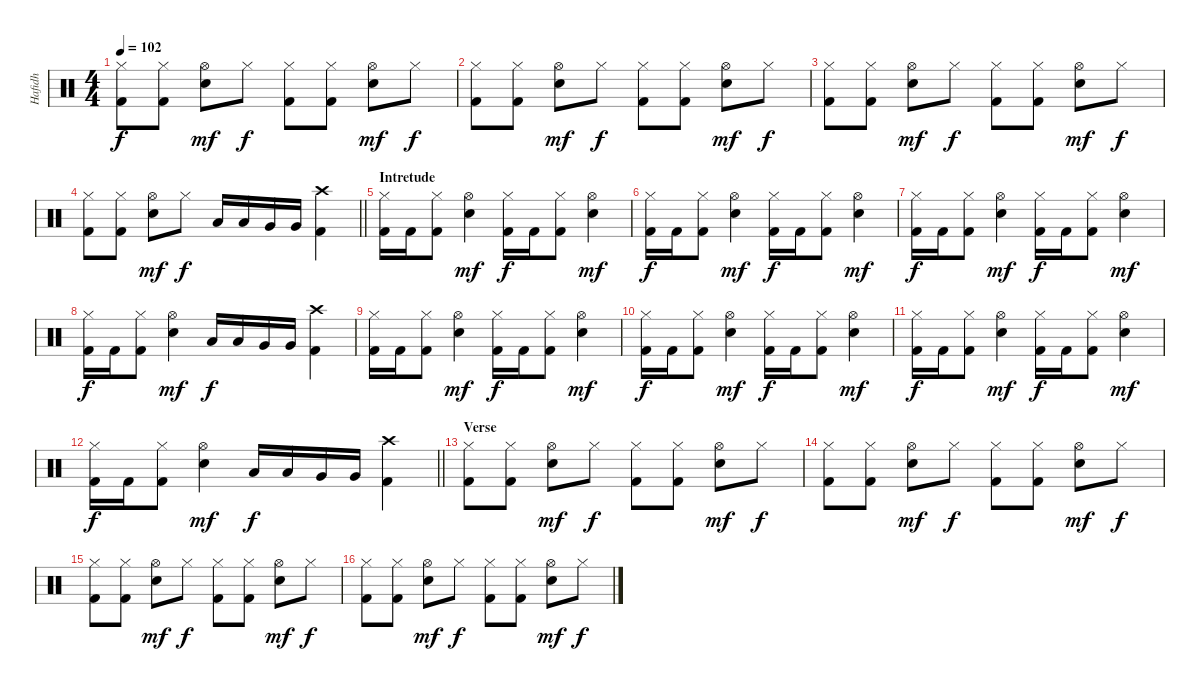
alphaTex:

\track ("Hafidh" "Hafidh") {instrument percussion}
\staff {score}
\articulation defaults
\ts (4 4)
\tempo 102
\clef neutral
\ks c
("Hi-Hat (closed)" "Kick (hit) 2").8{dy f} ("Hi-Hat (closed)" "Kick (hit) 2").8 ("Hi-Hat (open)" "Electric Snare (hit)").8{dy mf} "Hi-Hat (closed)".8{dy f} ("Hi-Hat (closed)" "Kick (hit) 2").8 ("Hi-Hat (closed)" "Kick (hit) 2").8 ("Hi-Hat (open)" "Electric Snare (hit)").8{dy mf} "Hi-Hat (closed)".8{dy f} |
("Hi-Hat (closed)" "Kick (hit) 2").8 ("Hi-Hat (closed)" "Kick (hit) 2").8 ("Hi-Hat (open)" "Electric Snare (hit)").8{dy mf} "Hi-Hat (closed)".8{dy f} ("Hi-Hat (closed)" "Kick (hit) 2").8 ("Hi-Hat (closed)" "Kick (hit) 2").8 ("Hi-Hat (open)" "Electric Snare (hit)").8{dy mf} "Hi-Hat (closed)".8{dy f} |
("Hi-Hat (closed)" "Kick (hit) 2").8 ("Hi-Hat (closed)" "Kick (hit) 2").8 ("Hi-Hat (open)" "Electric Snare (hit)").8{dy mf} "Hi-Hat (closed)".8{dy f} ("Hi-Hat (closed)" "Kick (hit) 2").8 ("Hi-Hat (closed)" "Kick (hit) 2").8 ("Hi-Hat (open)" "Electric Snare (hit)").8{dy mf} "Hi-Hat (closed)".8{dy f} |
\barLineRight lightlight
("Hi-Hat (closed)" "Kick (hit) 2").8 ("Hi-Hat (closed)" "Kick (hit) 2").8 ("Hi-Hat (open)" "Electric Snare (hit)").8{dy mf} "Hi-Hat (closed)".8{dy f} "Low Tom (hit)".16 "Low Tom (hit)".16 "Very Low Tom (hit)".16 "Very Low Tom (hit)".16 ("Crash high (hit)" "Kick (hit) 2").4 |
\section ("" "Intretude")
("Hi-Hat (closed)" "Kick (hit) 2").16 "Kick (hit) 2".16 ("Hi-Hat (closed)" "Kick (hit) 2").8 ("Hi-Hat (open)" "Electric Snare (hit)").4{dy mf} ("Hi-Hat (closed)" "Kick (hit) 2").16{dy f} "Kick (hit) 2".16 ("Hi-Hat (closed)" "Kick (hit) 2").8 ("Hi-Hat (open)" "Electric Snare (hit)").4{dy mf} |
("Hi-Hat (closed)" "Kick (hit) 2").16{dy f} "Kick (hit) 2".16 ("Hi-Hat (closed)" "Kick (hit) 2").8 ("Hi-Hat (open)" "Electric Snare (hit)").4{dy mf} ("Hi-Hat (closed)" "Kick (hit) 2").16{dy f} "Kick (hit) 2".16 ("Hi-Hat (closed)" "Kick (hit) 2").8 ("Hi-Hat (open)" "Electric Snare (hit)").4{dy mf} |
("Hi-Hat (closed)" "Kick (hit) 2").16{dy f} "Kick (hit) 2".16 ("Hi-Hat (closed)" "Kick (hit) 2").8 ("Hi-Hat (open)" "Electric Snare (hit)").4{dy mf} ("Hi-Hat (closed)" "Kick (hit) 2").16{dy f} "Kick (hit) 2".16 ("Hi-Hat (closed)" "Kick (hit) 2").8 ("Hi-Hat (open)" "Electric Snare (hit)").4{dy mf} |
("Hi-Hat (closed)" "Kick (hit) 2").16{dy f} "Kick (hit) 2".16 ("Hi-Hat (closed)" "Kick (hit) 2").8 ("Hi-Hat (open)" "Electric Snare (hit)").4{dy mf} "Low Tom (hit)".16{dy f} "Low Tom (hit)".16 "Very Low Tom (hit)".16 "Very Low Tom (hit)".16 ("Crash high (hit)" "Kick (hit) 2").4 |
("Hi-Hat (closed)" "Kick (hit) 2").16 "Kick (hit) 2".16 ("Hi-Hat (closed)" "Kick (hit) 2").8 ("Hi-Hat (open)" "Electric Snare (hit)").4{dy mf} ("Hi-Hat (closed)" "Kick (hit) 2").16{dy f} "Kick (hit) 2".16 ("Hi-Hat (closed)" "Kick (hit) 2").8 ("Hi-Hat (open)" "Electric Snare (hit)").4{dy mf} |
("Hi-Hat (closed)" "Kick (hit) 2").16{dy f} "Kick (hit) 2".16 ("Hi-Hat (closed)" "Kick (hit) 2").8 ("Hi-Hat (open)" "Electric Snare (hit)").4{dy mf} ("Hi-Hat (closed)" "Kick (hit) 2").16{dy f} "Kick (hit) 2".16 ("Hi-Hat (closed)" "Kick (hit) 2").8 ("Hi-Hat (open)" "Electric Snare (hit)").4{dy mf} |
("Hi-Hat (closed)" "Kick (hit) 2").16{dy f} "Kick (hit) 2".16 ("Hi-Hat (closed)" "Kick (hit) 2").8 ("Hi-Hat (open)" "Electric Snare (hit)").4{dy mf} ("Hi-Hat (closed)" "Kick (hit) 2").16{dy f} "Kick (hit) 2".16 ("Hi-Hat (closed)" "Kick (hit) 2").8 ("Hi-Hat (open)" "Electric Snare (hit)").4{dy mf} |
\barLineRight lightlight
("Hi-Hat (closed)" "Kick (hit) 2").16{dy f} "Kick (hit) 2".16 ("Hi-Hat (closed)" "Kick (hit) 2").8 ("Hi-Hat (open)" "Electric Snare (hit)").4{dy mf} "Low Tom (hit)".16{dy f} "Low Tom (hit)".16 "Very Low Tom (hit)".16 "Very Low Tom (hit)".16 ("Crash high (hit)" "Kick (hit) 2").4 |
\section ("" "Verse")
("Hi-Hat (closed)" "Kick (hit) 2").8 ("Hi-Hat (closed)" "Kick (hit) 2").8 ("Hi-Hat (open)" "Electric Snare (hit)").8{dy mf} "Hi-Hat (closed)".8{dy f} ("Hi-Hat (closed)" "Kick (hit) 2").8 ("Hi-Hat (closed)" "Kick (hit) 2").8 ("Hi-Hat (open)" "Electric Snare (hit)").8{dy mf} "Hi-Hat (closed)".8{dy f} |
("Hi-Hat (closed)" "Kick (hit) 2").8 ("Hi-Hat (closed)" "Kick (hit) 2").8 ("Hi-Hat (open)" "Electric Snare (hit)").8{dy mf} "Hi-Hat (closed)".8{dy f} ("Hi-Hat (closed)" "Kick (hit) 2").8 ("Hi-Hat (closed)" "Kick (hit) 2").8 ("Hi-Hat (open)" "Electric Snare (hit)").8{dy mf} "Hi-Hat (closed)".8{dy f} |
("Hi-Hat (closed)" "Kick (hit) 2").8 ("Hi-Hat (closed)" "Kick (hit) 2").8 ("Hi-Hat (open)" "Electric Snare (hit)").8{dy mf} "Hi-Hat (closed)".8{dy f} ("Hi-Hat (closed)" "Kick (hit) 2").8 ("Hi-Hat (closed)" "Kick (hit) 2").8 ("Hi-Hat (open)" "Electric Snare (hit)").8{dy mf} "Hi-Hat (closed)".8{dy f} |
("Hi-Hat (closed)" "Kick (hit) 2").8 ("Hi-Hat (closed)" "Kick (hit) 2").8 ("Hi-Hat (open)" "Electric Snare (hit)").8{dy mf} "Hi-Hat (closed)".8{dy f} ("Hi-Hat (closed)" "Kick (hit) 2").8 ("Hi-Hat (closed)" "Kick (hit) 2").8 ("Hi-Hat (open)" "Electric Snare (hit)").8{dy mf} "Hi-Hat (closed)".8{dy f}
